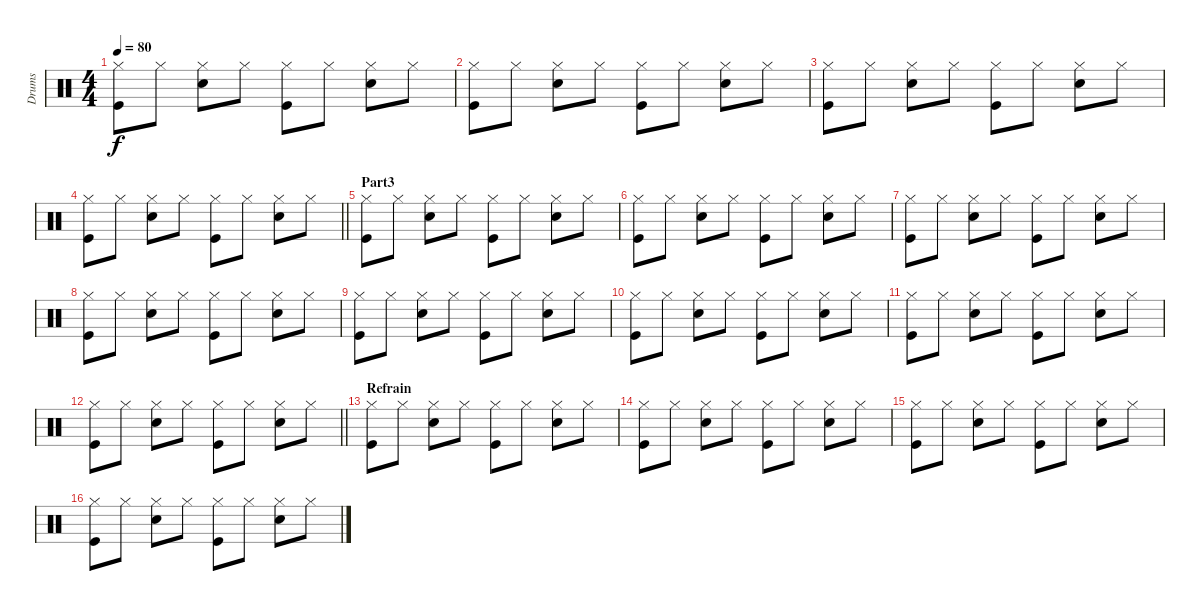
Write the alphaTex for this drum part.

\track ("Drums" "Drums") {instrument percussion}
\staff {score}
\articulation defaults
\ts (4 4)
\tempo 80
\clef neutral
\ks c
("Hi-Hat (closed)" "Kick (hit)").8{dy f} "Hi-Hat (closed)".8 ("Hi-Hat (closed)" "Snare (hit) 2").8 "Hi-Hat (closed)".8 ("Hi-Hat (closed)" "Kick (hit)").8 "Hi-Hat (closed)".8 ("Hi-Hat (closed)" "Snare (hit) 2").8 "Hi-Hat (closed)".8 |
("Hi-Hat (closed)" "Kick (hit)").8 "Hi-Hat (closed)".8 ("Hi-Hat (closed)" "Snare (hit) 2").8 "Hi-Hat (closed)".8 ("Hi-Hat (closed)" "Kick (hit)").8 "Hi-Hat (closed)".8 ("Hi-Hat (closed)" "Snare (hit) 2").8 "Hi-Hat (closed)".8 |
("Hi-Hat (closed)" "Kick (hit)").8 "Hi-Hat (closed)".8 ("Hi-Hat (closed)" "Snare (hit) 2").8 "Hi-Hat (closed)".8 ("Hi-Hat (closed)" "Kick (hit)").8 "Hi-Hat (closed)".8 ("Hi-Hat (closed)" "Snare (hit) 2").8 "Hi-Hat (closed)".8 |
\barLineRight lightlight
("Hi-Hat (closed)" "Kick (hit)").8 "Hi-Hat (closed)".8 ("Hi-Hat (closed)" "Snare (hit) 2").8 "Hi-Hat (closed)".8 ("Hi-Hat (closed)" "Kick (hit)").8 "Hi-Hat (closed)".8 ("Hi-Hat (closed)" "Snare (hit) 2").8 "Hi-Hat (closed)".8 |
\section ("" "Part3")
("Hi-Hat (closed)" "Kick (hit)").8 "Hi-Hat (closed)".8 ("Hi-Hat (closed)" "Snare (hit) 2").8 "Hi-Hat (closed)".8 ("Hi-Hat (closed)" "Kick (hit)").8 "Hi-Hat (closed)".8 ("Hi-Hat (closed)" "Snare (hit) 2").8 "Hi-Hat (closed)".8 |
("Hi-Hat (closed)" "Kick (hit)").8 "Hi-Hat (closed)".8 ("Hi-Hat (closed)" "Snare (hit) 2").8 "Hi-Hat (closed)".8 ("Hi-Hat (closed)" "Kick (hit)").8 "Hi-Hat (closed)".8 ("Hi-Hat (closed)" "Snare (hit) 2").8 "Hi-Hat (closed)".8 |
("Hi-Hat (closed)" "Kick (hit)").8 "Hi-Hat (closed)".8 ("Hi-Hat (closed)" "Snare (hit) 2").8 "Hi-Hat (closed)".8 ("Hi-Hat (closed)" "Kick (hit)").8 "Hi-Hat (closed)".8 ("Hi-Hat (closed)" "Snare (hit) 2").8 "Hi-Hat (closed)".8 |
("Hi-Hat (closed)" "Kick (hit)").8 "Hi-Hat (closed)".8 ("Hi-Hat (closed)" "Snare (hit) 2").8 "Hi-Hat (closed)".8 ("Hi-Hat (closed)" "Kick (hit)").8 "Hi-Hat (closed)".8 ("Hi-Hat (closed)" "Snare (hit) 2").8 "Hi-Hat (closed)".8 |
("Hi-Hat (closed)" "Kick (hit)").8 "Hi-Hat (closed)".8 ("Hi-Hat (closed)" "Snare (hit) 2").8 "Hi-Hat (closed)".8 ("Hi-Hat (closed)" "Kick (hit)").8 "Hi-Hat (closed)".8 ("Hi-Hat (closed)" "Snare (hit) 2").8 "Hi-Hat (closed)".8 |
("Hi-Hat (closed)" "Kick (hit)").8 "Hi-Hat (closed)".8 ("Hi-Hat (closed)" "Snare (hit) 2").8 "Hi-Hat (closed)".8 ("Hi-Hat (closed)" "Kick (hit)").8 "Hi-Hat (closed)".8 ("Hi-Hat (closed)" "Snare (hit) 2").8 "Hi-Hat (closed)".8 |
("Hi-Hat (closed)" "Kick (hit)").8 "Hi-Hat (closed)".8 ("Hi-Hat (closed)" "Snare (hit) 2").8 "Hi-Hat (closed)".8 ("Hi-Hat (closed)" "Kick (hit)").8 "Hi-Hat (closed)".8 ("Hi-Hat (closed)" "Snare (hit) 2").8 "Hi-Hat (closed)".8 |
\barLineRight lightlight
("Hi-Hat (closed)" "Kick (hit)").8 "Hi-Hat (closed)".8 ("Hi-Hat (closed)" "Snare (hit) 2").8 "Hi-Hat (closed)".8 ("Hi-Hat (closed)" "Kick (hit)").8 "Hi-Hat (closed)".8 ("Hi-Hat (closed)" "Snare (hit) 2").8 "Hi-Hat (closed)".8 |
\section ("" "Refrain")
("Hi-Hat (closed)" "Kick (hit)").8 "Hi-Hat (closed)".8 ("Hi-Hat (closed)" "Snare (hit) 2").8 "Hi-Hat (closed)".8 ("Hi-Hat (closed)" "Kick (hit)").8 "Hi-Hat (closed)".8 ("Hi-Hat (closed)" "Snare (hit) 2").8 "Hi-Hat (closed)".8 |
("Hi-Hat (closed)" "Kick (hit)").8 "Hi-Hat (closed)".8 ("Hi-Hat (closed)" "Snare (hit) 2").8 "Hi-Hat (closed)".8 ("Hi-Hat (closed)" "Kick (hit)").8 "Hi-Hat (closed)".8 ("Hi-Hat (closed)" "Snare (hit) 2").8 "Hi-Hat (closed)".8 |
("Hi-Hat (closed)" "Kick (hit)").8 "Hi-Hat (closed)".8 ("Hi-Hat (closed)" "Snare (hit) 2").8 "Hi-Hat (closed)".8 ("Hi-Hat (closed)" "Kick (hit)").8 "Hi-Hat (closed)".8 ("Hi-Hat (closed)" "Snare (hit) 2").8 "Hi-Hat (closed)".8 |
("Hi-Hat (closed)" "Kick (hit)").8 "Hi-Hat (closed)".8 ("Hi-Hat (closed)" "Snare (hit) 2").8 "Hi-Hat (closed)".8 ("Hi-Hat (closed)" "Kick (hit)").8 "Hi-Hat (closed)".8 ("Hi-Hat (closed)" "Snare (hit) 2").8 "Hi-Hat (closed)".8
